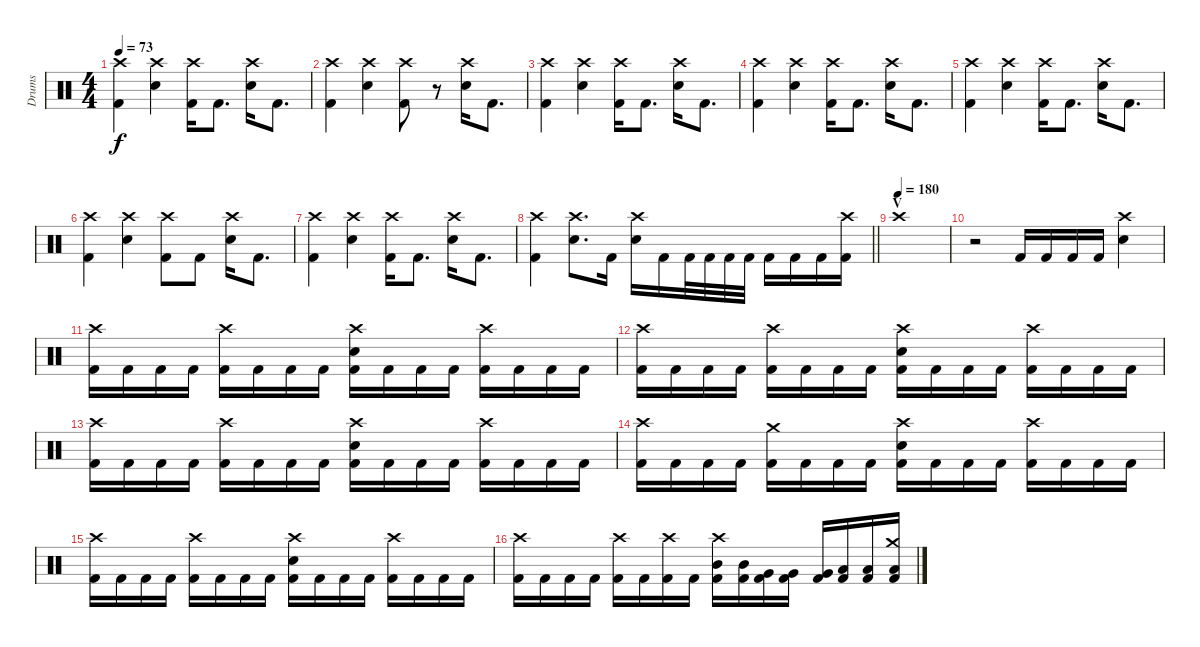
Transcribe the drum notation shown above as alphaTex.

\track ("Drums" "Drums") {instrument percussion}
\staff {score}
\articulation defaults
\ts (4 4)
\tempo 73
\clef neutral
\ks c
("Crash high (hit)" "Kick (hit) 2").4{dy f} ("Crash high (hit)" "Snare (hit) 2").4 ("Crash high (hit)" "Kick (hit) 2").16 "Kick (hit) 2".8{d} ("Crash high (hit)" "Snare (hit) 2").16 "Kick (hit) 2".8{d} |
("Crash high (hit)" "Kick (hit) 2").4 ("Crash high (hit)" "Snare (hit) 2").4 ("Crash high (hit)" "Kick (hit) 2").8 r.8 ("Crash high (hit)" "Snare (hit) 2").16 "Kick (hit) 2".8{d} |
("Crash high (hit)" "Kick (hit) 2").4 ("Crash high (hit)" "Snare (hit) 2").4 ("Crash high (hit)" "Kick (hit) 2").16 "Kick (hit) 2".8{d} ("Crash high (hit)" "Snare (hit) 2").16 "Kick (hit) 2".8{d} |
("Crash high (hit)" "Kick (hit) 2").4 ("Crash high (hit)" "Snare (hit) 2").4 ("Crash high (hit)" "Kick (hit) 2").16 "Kick (hit) 2".8{d} ("Crash high (hit)" "Snare (hit) 2").16 "Kick (hit) 2".8{d} |
("Crash high (hit)" "Kick (hit) 2").4 ("Crash high (hit)" "Snare (hit) 2").4 ("Crash high (hit)" "Kick (hit) 2").16 "Kick (hit) 2".8{d} ("Crash high (hit)" "Snare (hit) 2").16 "Kick (hit) 2".8{d} |
("Crash high (hit)" "Kick (hit) 2").4 ("Crash high (hit)" "Snare (hit) 2").4 ("Crash high (hit)" "Kick (hit) 2").8 "Kick (hit) 2".8 ("Crash high (hit)" "Snare (hit) 2").16 "Kick (hit) 2".8{d} |
("Crash high (hit)" "Kick (hit) 2").4 ("Crash high (hit)" "Snare (hit) 2").4 ("Crash high (hit)" "Kick (hit) 2").16 "Kick (hit) 2".8{d} ("Crash high (hit)" "Snare (hit) 2").16 "Kick (hit) 2".8{d} |
\barLineRight lightlight
("Crash high (hit)" "Kick (hit) 2").4 ("Crash high (hit)" "Snare (hit) 2").8{d} "Kick (hit) 2".16 ("Crash high (hit)" "Snare (hit) 2").16 "Kick (hit) 2".16 "Kick (hit) 2".32 "Kick (hit) 2".32 "Kick (hit) 2".32 "Kick (hit) 2".32 "Kick (hit) 2".16 "Kick (hit) 2".16 "Kick (hit) 2".16 ("Crash high (hit)" "Kick (hit) 2").16 |
\section ("" "V")
\tempo (180)
"Crash high (hit)".1 |
r.2 "Kick (hit) 2".16 "Kick (hit) 2".16 "Kick (hit) 2".16 "Kick (hit) 2".16 ("Crash high (hit)" "Snare (hit) 2").4 |
("Crash high (hit)" "Kick (hit) 2").16 "Kick (hit) 2".16 "Kick (hit) 2".16 "Kick (hit) 2".16 ("Crash high (hit)" "Kick (hit) 2").16 "Kick (hit) 2".16 "Kick (hit) 2".16 "Kick (hit) 2".16 ("Crash high (hit)" "Snare (hit) 2" "Kick (hit) 2").16 "Kick (hit) 2".16 "Kick (hit) 2".16 "Kick (hit) 2".16 ("Crash high (hit)" "Kick (hit) 2").16 "Kick (hit) 2".16 "Kick (hit) 2".16 "Kick (hit) 2".16 |
("Crash high (hit)" "Kick (hit) 2").16 "Kick (hit) 2".16 "Kick (hit) 2".16 "Kick (hit) 2".16 ("Crash high (hit)" "Kick (hit) 2").16 "Kick (hit) 2".16 "Kick (hit) 2".16 "Kick (hit) 2".16 ("Crash high (hit)" "Snare (hit) 2" "Kick (hit) 2").16 "Kick (hit) 2".16 "Kick (hit) 2".16 "Kick (hit) 2".16 ("Crash high (hit)" "Kick (hit) 2").16 "Kick (hit) 2".16 "Kick (hit) 2".16 "Kick (hit) 2".16 |
("Crash high (hit)" "Kick (hit) 2").16 "Kick (hit) 2".16 "Kick (hit) 2".16 "Kick (hit) 2".16 ("Crash high (hit)" "Kick (hit) 2").16 "Kick (hit) 2".16 "Kick (hit) 2".16 "Kick (hit) 2".16 ("Crash high (hit)" "Snare (hit) 2" "Kick (hit) 2").16 "Kick (hit) 2".16 "Kick (hit) 2".16 "Kick (hit) 2".16 ("Crash high (hit)" "Kick (hit) 2").16 "Kick (hit) 2".16 "Kick (hit) 2".16 "Kick (hit) 2".16 |
("Crash high (hit)" "Kick (hit) 2").16 "Kick (hit) 2".16 "Kick (hit) 2".16 "Kick (hit) 2".16 ("Crash medium (hit)" "Kick (hit) 2").16 "Kick (hit) 2".16 "Kick (hit) 2".16 "Kick (hit) 2".16 ("Crash high (hit)" "Snare (hit) 2" "Kick (hit) 2").16 "Kick (hit) 2".16 "Kick (hit) 2".16 "Kick (hit) 2".16 ("Crash high (hit)" "Kick (hit) 2").16 "Kick (hit) 2".16 "Kick (hit) 2".16 "Kick (hit) 2".16 |
("Crash high (hit)" "Kick (hit) 2").16 "Kick (hit) 2".16 "Kick (hit) 2".16 "Kick (hit) 2".16 ("Crash high (hit)" "Kick (hit) 2").16 "Kick (hit) 2".16 "Kick (hit) 2".16 "Kick (hit) 2".16 ("Crash high (hit)" "Snare (hit) 2" "Kick (hit) 2").16 "Kick (hit) 2".16 "Kick (hit) 2".16 "Kick (hit) 2".16 ("Crash high (hit)" "Kick (hit) 2").16 "Kick (hit) 2".16 "Kick (hit) 2".16 "Kick (hit) 2".16 |
("Crash high (hit)" "Kick (hit) 2").16 "Kick (hit) 2".16 "Kick (hit) 2".16 "Kick (hit) 2".16 ("Crash high (hit)" "Kick (hit) 2").16 "Kick (hit) 2".16 ("Crash high (hit)" "Kick (hit) 2").16 "Kick (hit) 2".16 ("Crash high (hit)" "Mid Tom (hit)" "Kick (hit) 2").16 ("Mid Tom (hit)" "Kick (hit) 2").16 ("Very Low Tom (hit)" "Kick (hit) 2").16 ("Very Low Tom (hit)" "Kick (hit) 2").16 ("Very Low Tom (hit)" "Kick (hit) 2").16 ("Low Floor Tom (hit)" "Kick (hit) 2").16 ("Low Floor Tom (hit)" "Kick (hit) 2").16 ("Crash medium (hit)" "Low Floor Tom (hit)" "Kick (hit) 2").16
